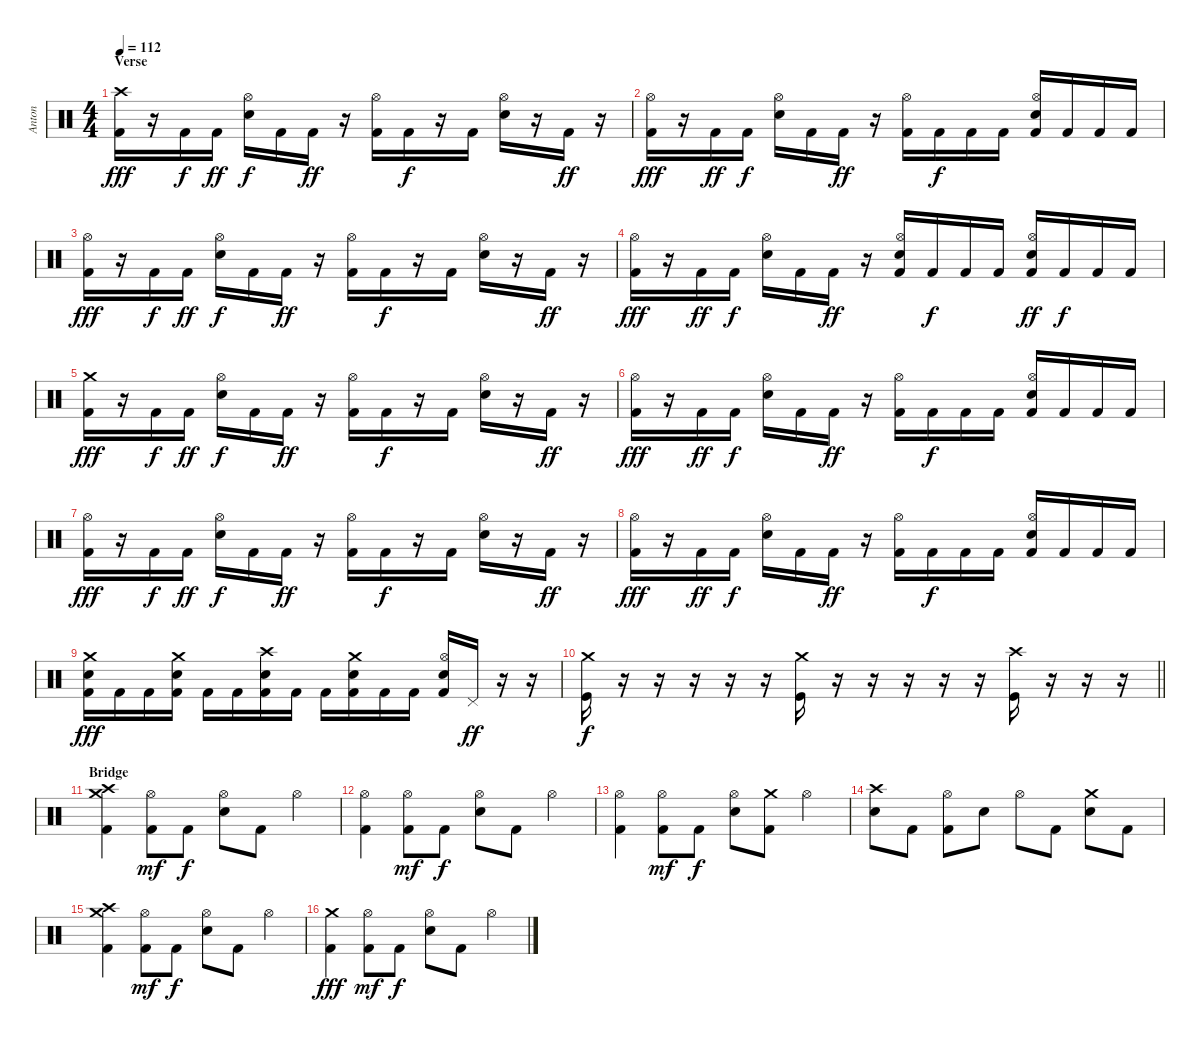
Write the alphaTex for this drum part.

\track ("Anton" "Anton") {instrument percussion}
\staff
\articulation defaults
\ts (4 4)
\section ("" "Verse")
\tempo 112
\clef neutral
\ks c
("Crash high (hit)" "Kick (hit) 2").16{dy fff} r.16 "Kick (hit) 2".16{dy f} "Kick (hit) 2".16{dy ff} ("Hi-Hat (open)" "Electric Snare (hit)").16{dy f} "Kick (hit) 2".16 "Kick (hit) 2".16{dy ff} r.16 ("Hi-Hat (open)" "Kick (hit) 2").16 "Kick (hit) 2".16{dy f} r.16 "Kick (hit) 2".16 ("Hi-Hat (open)" "Electric Snare (hit)").16 r.16 "Kick (hit) 2".16{dy ff} r.16 |
("Hi-Hat (open)" "Kick (hit) 2").16{dy fff} r.16 "Kick (hit) 2".16{dy ff} "Kick (hit) 2".16{dy f} ("Hi-Hat (open)" "Electric Snare (hit)").16 "Kick (hit) 2".16 "Kick (hit) 2".16{dy ff} r.16 ("Hi-Hat (open)" "Kick (hit) 2").16 "Kick (hit) 2".16{dy f} "Kick (hit) 2".16 "Kick (hit) 2".16 ("Hi-Hat (open)" "Electric Snare (hit)" "Kick (hit) 2").16 "Kick (hit) 2".16 "Kick (hit) 2".16 "Kick (hit) 2".16 |
("Hi-Hat (open)" "Kick (hit) 2").16{dy fff} r.16 "Kick (hit) 2".16{dy f} "Kick (hit) 2".16{dy ff} ("Hi-Hat (open)" "Electric Snare (hit)").16{dy f} "Kick (hit) 2".16 "Kick (hit) 2".16{dy ff} r.16 ("Hi-Hat (open)" "Kick (hit) 2").16 "Kick (hit) 2".16{dy f} r.16 "Kick (hit) 2".16 ("Hi-Hat (open)" "Electric Snare (hit)").16 r.16 "Kick (hit) 2".16{dy ff} r.16 |
("Hi-Hat (open)" "Kick (hit) 2").16{dy fff} r.16 "Kick (hit) 2".16{dy ff} "Kick (hit) 2".16{dy f} ("Hi-Hat (open)" "Electric Snare (hit)").16 "Kick (hit) 2".16 "Kick (hit) 2".16{dy ff} r.16 ("Hi-Hat (open)" "Electric Snare (hit)" "Kick (hit) 2").16 "Kick (hit) 2".16{dy f} "Kick (hit) 2".16 "Kick (hit) 2".16 ("Hi-Hat (open)" "Electric Snare (hit)" "Kick (hit) 2").16{dy ff} "Kick (hit) 2".16{dy f} "Kick (hit) 2".16 "Kick (hit) 2".16 |
("Crash medium (hit)" "Kick (hit) 2").16{dy fff} r.16 "Kick (hit) 2".16{dy f} "Kick (hit) 2".16{dy ff} ("Hi-Hat (open)" "Electric Snare (hit)").16{dy f} "Kick (hit) 2".16 "Kick (hit) 2".16{dy ff} r.16 ("Hi-Hat (open)" "Kick (hit) 2").16 "Kick (hit) 2".16{dy f} r.16 "Kick (hit) 2".16 ("Hi-Hat (open)" "Electric Snare (hit)").16 r.16 "Kick (hit) 2".16{dy ff} r.16 |
("Hi-Hat (open)" "Kick (hit) 2").16{dy fff} r.16 "Kick (hit) 2".16{dy ff} "Kick (hit) 2".16{dy f} ("Hi-Hat (open)" "Electric Snare (hit)").16 "Kick (hit) 2".16 "Kick (hit) 2".16{dy ff} r.16 ("Hi-Hat (open)" "Kick (hit) 2").16 "Kick (hit) 2".16{dy f} "Kick (hit) 2".16 "Kick (hit) 2".16 ("Hi-Hat (open)" "Electric Snare (hit)" "Kick (hit) 2").16 "Kick (hit) 2".16 "Kick (hit) 2".16 "Kick (hit) 2".16 |
("Hi-Hat (open)" "Kick (hit) 2").16{dy fff} r.16 "Kick (hit) 2".16{dy f} "Kick (hit) 2".16{dy ff} ("Hi-Hat (open)" "Electric Snare (hit)").16{dy f} "Kick (hit) 2".16 "Kick (hit) 2".16{dy ff} r.16 ("Hi-Hat (open)" "Kick (hit) 2").16 "Kick (hit) 2".16{dy f} r.16 "Kick (hit) 2".16 ("Hi-Hat (open)" "Electric Snare (hit)").16 r.16 "Kick (hit) 2".16{dy ff} r.16 |
("Hi-Hat (open)" "Kick (hit) 2").16{dy fff} r.16 "Kick (hit) 2".16{dy ff} "Kick (hit) 2".16{dy f} ("Hi-Hat (open)" "Electric Snare (hit)").16 "Kick (hit) 2".16 "Kick (hit) 2".16{dy ff} r.16 ("Hi-Hat (open)" "Kick (hit) 2").16 "Kick (hit) 2".16{dy f} "Kick (hit) 2".16 "Kick (hit) 2".16 ("Hi-Hat (open)" "Electric Snare (hit)" "Kick (hit) 2").16 "Kick (hit) 2".16 "Kick (hit) 2".16 "Kick (hit) 2".16 |
("Crash medium (hit)" "Electric Snare (hit)" "Kick (hit) 2").16{dy fff} "Kick (hit) 2".16 "Kick (hit) 2".16 ("Crash medium (hit)" "Electric Snare (hit)" "Kick (hit) 2").16 "Kick (hit) 2".16 "Kick (hit) 2".16 ("Crash high (hit)" "Electric Snare (hit)" "Kick (hit) 2").16 "Kick (hit) 2".16 "Kick (hit) 2".16 ("Crash medium (hit)" "Electric Snare (hit)" "Kick (hit) 2").16 "Kick (hit) 2".16 "Kick (hit) 2".16 ("Hi-Hat (open)" "Electric Snare (hit)" "Kick (hit) 2").16 "Pedal Hi-Hat (hit)".16{dy ff} r.16 r.16 |
\barLineRight lightlight
("Crash medium (hit)" "Kick (hit)").16{dy f} r.16 r.16 r.16 r.16 r.16 ("Kick (hit)" "Crash medium (hit)").16 r.16 r.16 r.16 r.16 r.16 ("Kick (hit)" "Crash high (hit)").16 r.16 r.16 r.16 |
\section ("" "Bridge")
("Crash medium (hit)" "Crash high (hit)" "Kick (hit) 2").4 ("Hi-Hat (open)" "Kick (hit) 2").8{dy mf} "Kick (hit) 2".8{dy f} ("Hi-Hat (open)" "Electric Snare (hit)").8 "Kick (hit) 2".8 "Hi-Hat (open)".4 |
("Hi-Hat (open)" "Kick (hit) 2").4 ("Hi-Hat (open)" "Kick (hit) 2").8{dy mf} "Kick (hit) 2".8{dy f} ("Hi-Hat (open)" "Electric Snare (hit)").8 "Kick (hit) 2".8 "Hi-Hat (open)".4 |
("Hi-Hat (open)" "Kick (hit) 2").4 ("Hi-Hat (open)" "Kick (hit) 2").8{dy mf} "Kick (hit) 2".8{dy f} ("Hi-Hat (open)" "Electric Snare (hit)").8 ("Crash medium (hit)" "Kick (hit) 2").8 "Hi-Hat (open)".4 |
("Crash high (hit)" "Electric Snare (hit)").8 "Kick (hit) 2".8 ("Hi-Hat (open)" "Kick (hit) 2").8 "Electric Snare (hit)".8 "Hi-Hat (open)".8 "Kick (hit) 2".8 ("Crash medium (hit)" "Electric Snare (hit)").8 "Kick (hit) 2".8 |
("Crash medium (hit)" "Crash high (hit)" "Kick (hit) 2").4 ("Hi-Hat (open)" "Kick (hit) 2").8{dy mf} "Kick (hit) 2".8{dy f} ("Hi-Hat (open)" "Electric Snare (hit)").8 "Kick (hit) 2".8 "Hi-Hat (open)".4 |
("Crash medium (hit)" "Kick (hit) 2").4{dy fff} ("Hi-Hat (open)" "Kick (hit) 2").8{dy mf} "Kick (hit) 2".8{dy f} ("Hi-Hat (open)" "Electric Snare (hit)").8 "Kick (hit) 2".8 "Hi-Hat (open)".4
